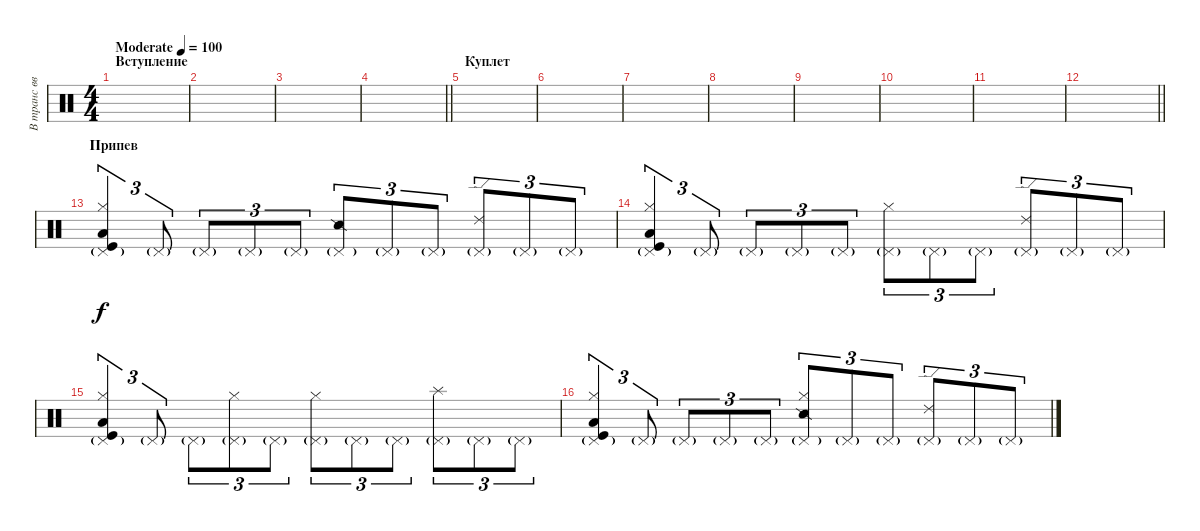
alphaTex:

\track ("В транс вводящие" "В транс вв") {instrument percussion}
\staff {score}
\articulation defaults
\ts (4 4)
\section ("" "Вступление")
\tempo (100 "Moderate")
\clef neutral
\ks c
|
|
|
\barLineRight lightlight
|
\section ("" "Куплет")
|
|
|
|
|
|
|
\barLineRight lightlight
|
\section ("" "Припев")
("Pedal Hi-Hat (hit)"{g} "Hi-Hat (closed)" "Low Tom (hit)" "Kick (hit)").4{tu (3 2)} "Pedal Hi-Hat (hit)"{g}.8{tu (3 2)} "Pedal Hi-Hat (hit)"{g}.8{tu (3 2)} "Pedal Hi-Hat (hit)"{g}.8{tu (3 2)} "Pedal Hi-Hat (hit)"{g}.8{tu (3 2)} ("Pedal Hi-Hat (hit)"{g} "Snare (side stick) 2").8{tu (3 2)} "Pedal Hi-Hat (hit)"{g}.8{tu (3 2)} "Pedal Hi-Hat (hit)"{g}.8{tu (3 2)} ("Pedal Hi-Hat (hit)"{g} "Ride (edge) 2").8{tu (3 2)} "Pedal Hi-Hat (hit)"{g}.8{tu (3 2)} "Pedal Hi-Hat (hit)"{g}.8{tu (3 2)} |
("Pedal Hi-Hat (hit)"{g} "Hi-Hat (closed)" "Low Tom (hit)" "Kick (hit)").4{tu (3 2)} "Pedal Hi-Hat (hit)"{g}.8{tu (3 2)} "Pedal Hi-Hat (hit)"{g}.8{tu (3 2)} "Pedal Hi-Hat (hit)"{g}.8{tu (3 2)} "Pedal Hi-Hat (hit)"{g}.8{tu (3 2)} ("Pedal Hi-Hat (hit)"{g} "Hi-Hat (closed)").8{tu (3 2)} "Pedal Hi-Hat (hit)"{g}.8{tu (3 2)} "Pedal Hi-Hat (hit)"{g}.8{tu (3 2)} ("Pedal Hi-Hat (hit)"{g} "Ride (edge) 2").8{tu (3 2)} "Pedal Hi-Hat (hit)"{g}.8{tu (3 2)} "Pedal Hi-Hat (hit)"{g}.8{tu (3 2)} |
("Pedal Hi-Hat (hit)"{g} "Hi-Hat (closed)" "Low Tom (hit)" "Kick (hit)").4{tu (3 2)} "Pedal Hi-Hat (hit)"{g}.8{tu (3 2)} "Pedal Hi-Hat (hit)"{g}.8{tu (3 2)} ("Pedal Hi-Hat (hit)"{g} "Hi-Hat (closed)").8{tu (3 2)} "Pedal Hi-Hat (hit)"{g}.8{tu (3 2)} ("Pedal Hi-Hat (hit)"{g} "Hi-Hat (closed)").8{tu (3 2)} "Pedal Hi-Hat (hit)"{g}.8{tu (3 2)} "Pedal Hi-Hat (hit)"{g}.8{tu (3 2)} ("Pedal Hi-Hat (hit)"{g} "Splash (hit)").8{tu (3 2)} "Pedal Hi-Hat (hit)"{g}.8{tu (3 2)} "Pedal Hi-Hat (hit)"{g}.8{tu (3 2)} |
("Pedal Hi-Hat (hit)"{g} "Hi-Hat (closed)" "Low Tom (hit)" "Kick (hit)").4{tu (3 2)} "Pedal Hi-Hat (hit)"{g}.8{tu (3 2)} "Pedal Hi-Hat (hit)"{g}.8{tu (3 2)} "Pedal Hi-Hat (hit)"{g}.8{tu (3 2)} "Pedal Hi-Hat (hit)"{g}.8{tu (3 2)} ("Pedal Hi-Hat (hit)"{g} "Snare (side stick) 2" "Hi-Hat (closed)").8{tu (3 2)} "Pedal Hi-Hat (hit)"{g}.8{tu (3 2)} "Pedal Hi-Hat (hit)"{g}.8{tu (3 2)} ("Pedal Hi-Hat (hit)"{g} "Ride (edge) 2").8{tu (3 2)} "Pedal Hi-Hat (hit)"{g}.8{tu (3 2)} "Pedal Hi-Hat (hit)"{g}.8{tu (3 2)}
